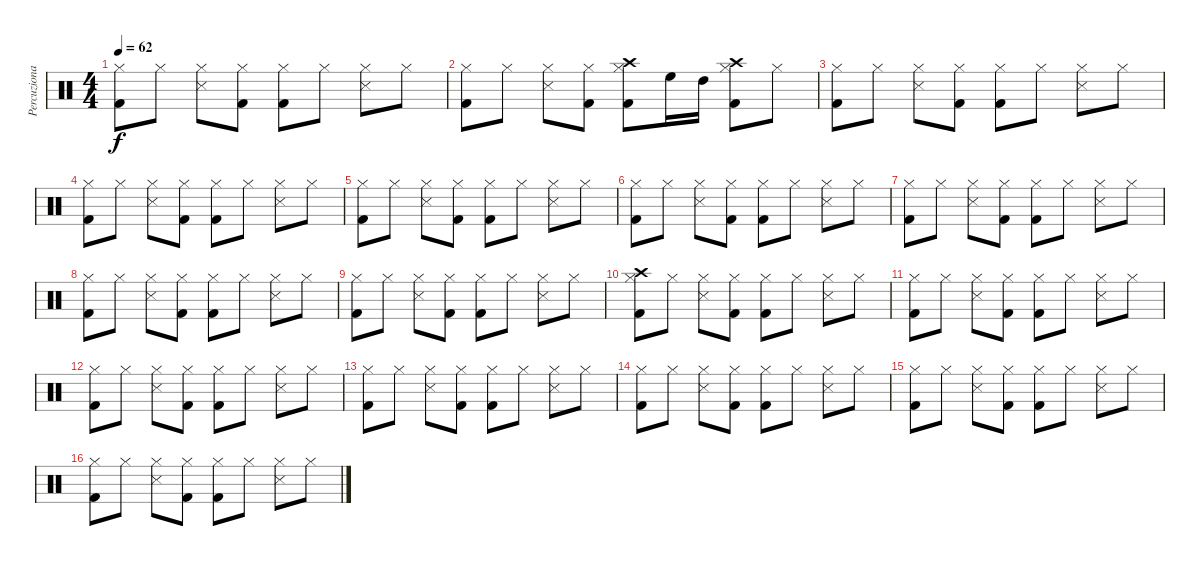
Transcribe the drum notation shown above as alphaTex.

\track ("Percuzionale" "Percuziona") {instrument percussion}
\staff {score}
\articulation defaults
\ts (4 4)
\tempo 62
\clef neutral
\ks c
("Hi-Hat (closed)" "Kick (hit) 2").8{dy f} "Hi-Hat (closed)".8 ("Hi-Hat (closed)" "Snare (side stick) 3").8 ("Hi-Hat (closed)" "Kick (hit) 2").8 ("Hi-Hat (closed)" "Kick (hit) 2").8 "Hi-Hat (closed)".8 ("Hi-Hat (closed)" "Snare (side stick) 3").8 "Hi-Hat (closed)".8 |
("Hi-Hat (closed)" "Kick (hit) 2").8 "Hi-Hat (closed)".8 ("Hi-Hat (closed)" "Snare (side stick) 3").8 ("Hi-Hat (closed)" "Kick (hit) 2").8 ("Crash high (hit)" "Hi-Hat (closed)" "Kick (hit) 2").8 "High Floor Tom (hit)".16 "High Tom (hit)".16 ("Crash high (hit)" "Hi-Hat (closed)" "Kick (hit) 2").8 "Hi-Hat (closed)".8 |
("Hi-Hat (closed)" "Kick (hit) 2").8 "Hi-Hat (closed)".8 ("Hi-Hat (closed)" "Snare (side stick) 3").8 ("Hi-Hat (closed)" "Kick (hit) 2").8 ("Hi-Hat (closed)" "Kick (hit) 2").8 "Hi-Hat (closed)".8 ("Hi-Hat (closed)" "Snare (side stick) 3").8 "Hi-Hat (closed)".8 |
("Hi-Hat (closed)" "Kick (hit) 2").8 "Hi-Hat (closed)".8 ("Hi-Hat (closed)" "Snare (side stick) 3").8 ("Hi-Hat (closed)" "Kick (hit) 2").8 ("Hi-Hat (closed)" "Kick (hit) 2").8 "Hi-Hat (closed)".8 ("Hi-Hat (closed)" "Snare (side stick) 3").8 "Hi-Hat (closed)".8 |
("Hi-Hat (closed)" "Kick (hit) 2").8 "Hi-Hat (closed)".8 ("Hi-Hat (closed)" "Snare (side stick) 3").8 ("Hi-Hat (closed)" "Kick (hit) 2").8 ("Hi-Hat (closed)" "Kick (hit) 2").8 "Hi-Hat (closed)".8 ("Hi-Hat (closed)" "Snare (side stick) 3").8 "Hi-Hat (closed)".8 |
("Hi-Hat (closed)" "Kick (hit) 2").8 "Hi-Hat (closed)".8 ("Hi-Hat (closed)" "Snare (side stick) 3").8 ("Hi-Hat (closed)" "Kick (hit) 2").8 ("Hi-Hat (closed)" "Kick (hit) 2").8 "Hi-Hat (closed)".8 ("Hi-Hat (closed)" "Snare (side stick) 3").8 "Hi-Hat (closed)".8 |
("Hi-Hat (closed)" "Kick (hit) 2").8 "Hi-Hat (closed)".8 ("Hi-Hat (closed)" "Snare (side stick) 3").8 ("Hi-Hat (closed)" "Kick (hit) 2").8 ("Hi-Hat (closed)" "Kick (hit) 2").8 "Hi-Hat (closed)".8 ("Hi-Hat (closed)" "Snare (side stick) 3").8 "Hi-Hat (closed)".8 |
("Hi-Hat (closed)" "Kick (hit) 2").8 "Hi-Hat (closed)".8 ("Hi-Hat (closed)" "Snare (side stick) 3").8 ("Hi-Hat (closed)" "Kick (hit) 2").8 ("Hi-Hat (closed)" "Kick (hit) 2").8 "Hi-Hat (closed)".8 ("Hi-Hat (closed)" "Snare (side stick) 3").8 "Hi-Hat (closed)".8 |
("Hi-Hat (closed)" "Kick (hit) 2").8 "Hi-Hat (closed)".8 ("Hi-Hat (closed)" "Snare (side stick) 3").8 ("Hi-Hat (closed)" "Kick (hit) 2").8 ("Hi-Hat (closed)" "Kick (hit) 2").8 "Hi-Hat (closed)".8 ("Hi-Hat (closed)" "Snare (side stick) 3").8 "Hi-Hat (closed)".8 |
("Crash high (hit)" "Hi-Hat (closed)" "Kick (hit) 2").8 "Hi-Hat (closed)".8 ("Hi-Hat (closed)" "Snare (side stick) 3").8 ("Hi-Hat (closed)" "Kick (hit) 2").8 ("Hi-Hat (closed)" "Kick (hit) 2").8 "Hi-Hat (closed)".8 ("Hi-Hat (closed)" "Snare (side stick) 3").8 "Hi-Hat (closed)".8 |
("Hi-Hat (closed)" "Kick (hit) 2").8 "Hi-Hat (closed)".8 ("Hi-Hat (closed)" "Snare (side stick) 3").8 ("Hi-Hat (closed)" "Kick (hit) 2").8 ("Hi-Hat (closed)" "Kick (hit) 2").8 "Hi-Hat (closed)".8 ("Hi-Hat (closed)" "Snare (side stick) 3").8 "Hi-Hat (closed)".8 |
("Hi-Hat (closed)" "Kick (hit) 2").8 "Hi-Hat (closed)".8 ("Hi-Hat (closed)" "Snare (side stick) 3").8 ("Hi-Hat (closed)" "Kick (hit) 2").8 ("Hi-Hat (closed)" "Kick (hit) 2").8 "Hi-Hat (closed)".8 ("Hi-Hat (closed)" "Snare (side stick) 3").8 "Hi-Hat (closed)".8 |
("Hi-Hat (closed)" "Kick (hit) 2").8 "Hi-Hat (closed)".8 ("Hi-Hat (closed)" "Snare (side stick) 3").8 ("Hi-Hat (closed)" "Kick (hit) 2").8 ("Hi-Hat (closed)" "Kick (hit) 2").8 "Hi-Hat (closed)".8 ("Hi-Hat (closed)" "Snare (side stick) 3").8 "Hi-Hat (closed)".8 |
("Hi-Hat (closed)" "Kick (hit) 2").8 "Hi-Hat (closed)".8 ("Hi-Hat (closed)" "Snare (side stick) 3").8 ("Hi-Hat (closed)" "Kick (hit) 2").8 ("Hi-Hat (closed)" "Kick (hit) 2").8 "Hi-Hat (closed)".8 ("Hi-Hat (closed)" "Snare (side stick) 3").8 "Hi-Hat (closed)".8 |
("Hi-Hat (closed)" "Kick (hit) 2").8 "Hi-Hat (closed)".8 ("Hi-Hat (closed)" "Snare (side stick) 3").8 ("Hi-Hat (closed)" "Kick (hit) 2").8 ("Hi-Hat (closed)" "Kick (hit) 2").8 "Hi-Hat (closed)".8 ("Hi-Hat (closed)" "Snare (side stick) 3").8 "Hi-Hat (closed)".8 |
("Hi-Hat (closed)" "Kick (hit) 2").8 "Hi-Hat (closed)".8 ("Hi-Hat (closed)" "Snare (side stick) 3").8 ("Hi-Hat (closed)" "Kick (hit) 2").8 ("Hi-Hat (closed)" "Kick (hit) 2").8 "Hi-Hat (closed)".8 ("Hi-Hat (closed)" "Snare (side stick) 3").8 "Hi-Hat (closed)".8
